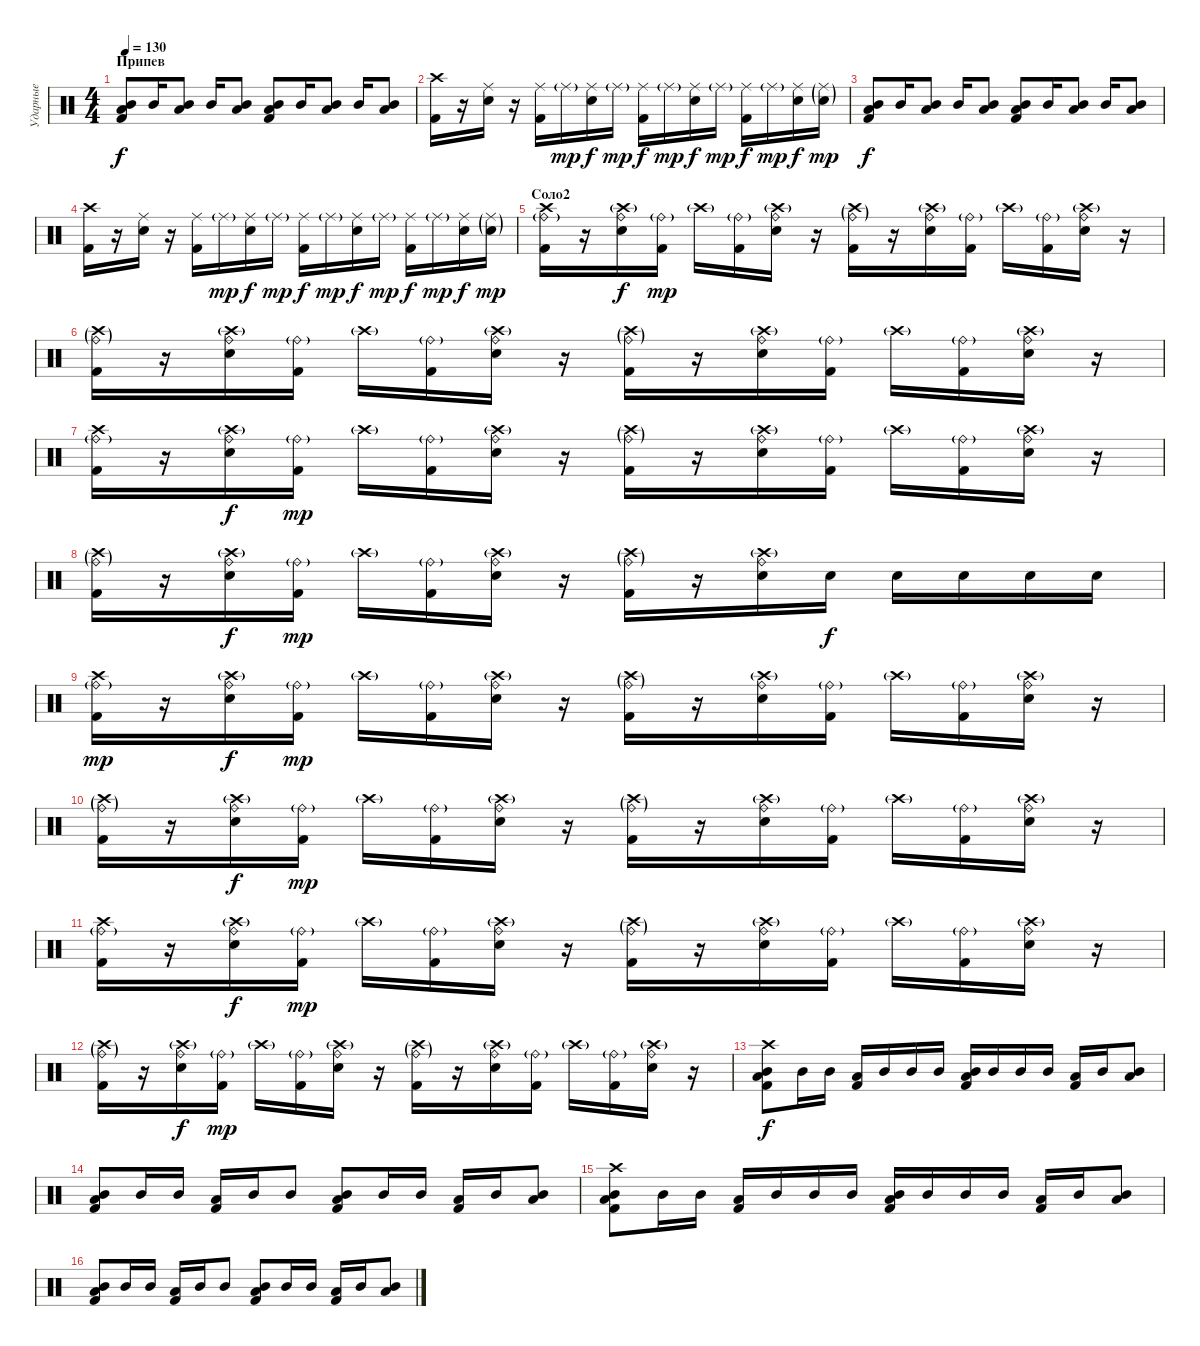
\track ("Ударные" "Ударные") {instrument percussion}
\staff {score}
\articulation defaults
\ts (4 4)
\section ("" "Припев")
\tempo 130
\clef neutral
\ks c
("Low Tom (hit)" "Mid Tom (hit)" "Kick (hit) 2").8{dy f} "Mid Tom (hit)".16 ("Low Tom (hit)" "Mid Tom (hit)").8 "Mid Tom (hit)".16 ("Low Tom (hit)" "Mid Tom (hit)").8 ("Low Tom (hit)" "Mid Tom (hit)" "Kick (hit) 2").8 "Mid Tom (hit)".16 ("Low Tom (hit)" "Mid Tom (hit)").8 "Mid Tom (hit)".16 ("Low Tom (hit)" "Mid Tom (hit)").8 |
("Crash high (hit)" "Kick (hit) 2").16 r.16 ("Ride (middle)" "Snare (hit) 2").16 r.16 ("Ride (middle)" "Kick (hit) 2").16 "Ride (middle)"{g}.16{dy mp} ("Ride (middle)" "Snare (hit) 2").16{dy f} "Ride (middle)"{g}.16{dy mp} ("Ride (middle)" "Kick (hit) 2").16{dy f} "Ride (middle)"{g}.16{dy mp} ("Ride (middle)" "Snare (hit) 2").16{dy f} "Ride (middle)"{g}.16{dy mp} ("Ride (middle)" "Kick (hit) 2").16{dy f} "Ride (middle)"{g}.16{dy mp} ("Ride (middle)" "Snare (hit) 2").16{dy f} ("Ride (middle)"{g} "Snare (hit) 2"{g}).16{dy mp} |
("Low Tom (hit)" "Mid Tom (hit)" "Kick (hit) 2").8{dy f} "Mid Tom (hit)".16 ("Low Tom (hit)" "Mid Tom (hit)").8 "Mid Tom (hit)".16 ("Low Tom (hit)" "Mid Tom (hit)").8 ("Low Tom (hit)" "Mid Tom (hit)" "Kick (hit) 2").8 "Mid Tom (hit)".16 ("Low Tom (hit)" "Mid Tom (hit)").8 "Mid Tom (hit)".16 ("Low Tom (hit)" "Mid Tom (hit)").8 |
("Crash high (hit)" "Kick (hit) 2").16 r.16 ("Ride (middle)" "Snare (hit) 2").16 r.16 ("Ride (middle)" "Kick (hit) 2").16 "Ride (middle)"{g}.16{dy mp} ("Ride (middle)" "Snare (hit) 2").16{dy f} "Ride (middle)"{g}.16{dy mp} ("Ride (middle)" "Kick (hit) 2").16{dy f} "Ride (middle)"{g}.16{dy mp} ("Ride (middle)" "Snare (hit) 2").16{dy f} "Ride (middle)"{g}.16{dy mp} ("Ride (middle)" "Kick (hit) 2").16{dy f} "Ride (middle)"{g}.16{dy mp} ("Ride (middle)" "Snare (hit) 2").16{dy f} ("Ride (middle)"{g} "Snare (hit) 2"{g}).16{dy mp} |
\section ("" "Соло2")
("Crash high (hit)" "Ride (bell)"{g} "Kick (hit) 2").16 r.16 ("Crash high (hit)"{g} "Snare (hit) 2" "Ride (bell)").16{dy f} ("Ride (bell)"{g} "Kick (hit) 2").16{dy mp} "Crash high (hit)"{g}.16 ("Ride (bell)"{g} "Kick (hit) 2").16 ("Crash high (hit)"{g} "Snare (hit) 2" "Ride (bell)").16 r.16 ("Crash high (hit)"{g} "Ride (bell)"{g} "Kick (hit) 2").16 r.16 ("Crash high (hit)"{g} "Snare (hit) 2" "Ride (bell)").16 ("Ride (bell)"{g} "Kick (hit) 2").16 "Crash high (hit)"{g}.16 ("Ride (bell)"{g} "Kick (hit) 2").16 ("Crash high (hit)"{g} "Snare (hit) 2" "Ride (bell)").16 r.16 |
("Crash high (hit)"{g} "Ride (bell)"{g} "Kick (hit) 2").16 r.16 ("Crash high (hit)"{g} "Snare (hit) 2" "Ride (bell)").16 ("Ride (bell)"{g} "Kick (hit) 2").16 "Crash high (hit)"{g}.16 ("Ride (bell)"{g} "Kick (hit) 2").16 ("Crash high (hit)"{g} "Snare (hit) 2" "Ride (bell)").16 r.16 ("Crash high (hit)"{g} "Ride (bell)"{g} "Kick (hit) 2").16 r.16 ("Crash high (hit)"{g} "Snare (hit) 2" "Ride (bell)").16 ("Ride (bell)"{g} "Kick (hit) 2").16 "Crash high (hit)"{g}.16 ("Ride (bell)"{g} "Kick (hit) 2").16 ("Crash high (hit)"{g} "Snare (hit) 2" "Ride (bell)").16 r.16 |
("Crash high (hit)" "Ride (bell)"{g} "Kick (hit) 2").16 r.16 ("Crash high (hit)"{g} "Snare (hit) 2" "Ride (bell)").16{dy f} ("Ride (bell)"{g} "Kick (hit) 2").16{dy mp} "Crash high (hit)"{g}.16 ("Ride (bell)"{g} "Kick (hit) 2").16 ("Crash high (hit)"{g} "Snare (hit) 2" "Ride (bell)").16 r.16 ("Crash high (hit)"{g} "Ride (bell)"{g} "Kick (hit) 2").16 r.16 ("Crash high (hit)"{g} "Snare (hit) 2" "Ride (bell)").16 ("Ride (bell)"{g} "Kick (hit) 2").16 "Crash high (hit)"{g}.16 ("Ride (bell)"{g} "Kick (hit) 2").16 ("Crash high (hit)"{g} "Snare (hit) 2" "Ride (bell)").16 r.16 |
("Crash high (hit)"{g} "Ride (bell)"{g} "Kick (hit) 2").16 r.16 ("Crash high (hit)"{g} "Snare (hit) 2" "Ride (bell)").16{dy f} ("Ride (bell)"{g} "Kick (hit) 2").16{dy mp} "Crash high (hit)"{g}.16 ("Ride (bell)"{g} "Kick (hit) 2").16 ("Crash high (hit)"{g} "Snare (hit) 2" "Ride (bell)").16 r.16 ("Crash high (hit)"{g} "Ride (bell)"{g} "Kick (hit) 2").16 r.16 ("Crash high (hit)"{g} "Snare (hit) 2" "Ride (bell)").16 "Snare (hit) 2".16{dy f} "Snare (hit) 2".16 "Snare (hit) 2".16 "Snare (hit) 2".16 "Snare (hit) 2".16 |
("Crash high (hit)" "Ride (bell)"{g} "Kick (hit) 2").16{dy mp} r.16 ("Crash high (hit)"{g} "Snare (hit) 2" "Ride (bell)").16{dy f} ("Ride (bell)"{g} "Kick (hit) 2").16{dy mp} "Crash high (hit)"{g}.16 ("Ride (bell)"{g} "Kick (hit) 2").16 ("Crash high (hit)"{g} "Snare (hit) 2" "Ride (bell)").16 r.16 ("Crash high (hit)"{g} "Ride (bell)"{g} "Kick (hit) 2").16 r.16 ("Crash high (hit)"{g} "Snare (hit) 2" "Ride (bell)").16 ("Ride (bell)"{g} "Kick (hit) 2").16 "Crash high (hit)"{g}.16 ("Ride (bell)"{g} "Kick (hit) 2").16 ("Crash high (hit)"{g} "Snare (hit) 2" "Ride (bell)").16 r.16 |
("Crash high (hit)"{g} "Ride (bell)"{g} "Kick (hit) 2").16 r.16 ("Crash high (hit)"{g} "Snare (hit) 2" "Ride (bell)").16{dy f} ("Ride (bell)"{g} "Kick (hit) 2").16{dy mp} "Crash high (hit)"{g}.16 ("Ride (bell)"{g} "Kick (hit) 2").16 ("Crash high (hit)"{g} "Snare (hit) 2" "Ride (bell)").16 r.16 ("Crash high (hit)"{g} "Ride (bell)"{g} "Kick (hit) 2").16 r.16 ("Crash high (hit)"{g} "Snare (hit) 2" "Ride (bell)").16 ("Ride (bell)"{g} "Kick (hit) 2").16 "Crash high (hit)"{g}.16 ("Ride (bell)"{g} "Kick (hit) 2").16 ("Crash high (hit)"{g} "Snare (hit) 2" "Ride (bell)").16 r.16 |
("Crash high (hit)" "Ride (bell)"{g} "Kick (hit) 2").16 r.16 ("Crash high (hit)"{g} "Snare (hit) 2" "Ride (bell)").16{dy f} ("Ride (bell)"{g} "Kick (hit) 2").16{dy mp} "Crash high (hit)"{g}.16 ("Ride (bell)"{g} "Kick (hit) 2").16 ("Crash high (hit)"{g} "Snare (hit) 2" "Ride (bell)").16 r.16 ("Crash high (hit)"{g} "Ride (bell)"{g} "Kick (hit) 2").16 r.16 ("Crash high (hit)"{g} "Snare (hit) 2" "Ride (bell)").16 ("Ride (bell)"{g} "Kick (hit) 2").16 "Crash high (hit)"{g}.16 ("Ride (bell)"{g} "Kick (hit) 2").16 ("Crash high (hit)"{g} "Snare (hit) 2" "Ride (bell)").16 r.16 |
("Crash high (hit)"{g} "Ride (bell)"{g} "Kick (hit) 2").16 r.16 ("Crash high (hit)"{g} "Snare (hit) 2" "Ride (bell)").16{dy f} ("Ride (bell)"{g} "Kick (hit) 2").16{dy mp} "Crash high (hit)"{g}.16 ("Ride (bell)"{g} "Kick (hit) 2").16 ("Crash high (hit)"{g} "Snare (hit) 2" "Ride (bell)").16 r.16 ("Crash high (hit)"{g} "Ride (bell)"{g} "Kick (hit) 2").16 r.16 ("Crash high (hit)"{g} "Snare (hit) 2" "Ride (bell)").16 ("Ride (bell)"{g} "Kick (hit) 2").16 "Crash high (hit)"{g}.16 ("Ride (bell)"{g} "Kick (hit) 2").16 ("Crash high (hit)"{g} "Snare (hit) 2" "Ride (bell)").16 r.16 |
("Low Tom (hit)" "Mid Tom (hit)" "Crash high (hit)" "Kick (hit) 2").8{dy f volume 13} "Mid Tom (hit)".16 "Mid Tom (hit)".16 ("Low Tom (hit)" "Kick (hit) 2").16 "Mid Tom (hit)".16 "Mid Tom (hit)".16 "Mid Tom (hit)".16 ("Low Tom (hit)" "Mid Tom (hit)" "Kick (hit) 2").16 "Mid Tom (hit)".16 "Mid Tom (hit)".16 "Mid Tom (hit)".16 ("Low Tom (hit)" "Kick (hit) 2").16 "Mid Tom (hit)".16 ("Low Tom (hit)" "Mid Tom (hit)").8 |
("Low Tom (hit)" "Mid Tom (hit)" "Kick (hit) 2").8 "Mid Tom (hit)".16 "Mid Tom (hit)".16 ("Low Tom (hit)" "Kick (hit) 2").16 "Mid Tom (hit)".16 "Mid Tom (hit)".8 ("Low Tom (hit)" "Mid Tom (hit)" "Kick (hit) 2").8 "Mid Tom (hit)".16 "Mid Tom (hit)".16 ("Low Tom (hit)" "Kick (hit) 2").16 "Mid Tom (hit)".16 ("Low Tom (hit)" "Mid Tom (hit)").8 |
("Low Tom (hit)" "Mid Tom (hit)" "Crash high (hit)" "Kick (hit) 2").8{volume 13} "Mid Tom (hit)".16 "Mid Tom (hit)".16 ("Low Tom (hit)" "Kick (hit) 2").16 "Mid Tom (hit)".16 "Mid Tom (hit)".16 "Mid Tom (hit)".16 ("Low Tom (hit)" "Mid Tom (hit)" "Kick (hit) 2").16 "Mid Tom (hit)".16 "Mid Tom (hit)".16 "Mid Tom (hit)".16 ("Low Tom (hit)" "Kick (hit) 2").16 "Mid Tom (hit)".16 ("Low Tom (hit)" "Mid Tom (hit)").8 |
("Low Tom (hit)" "Mid Tom (hit)" "Kick (hit) 2").8 "Mid Tom (hit)".16 "Mid Tom (hit)".16 ("Low Tom (hit)" "Kick (hit) 2").16 "Mid Tom (hit)".16 "Mid Tom (hit)".8 ("Low Tom (hit)" "Mid Tom (hit)" "Kick (hit) 2").8 "Mid Tom (hit)".16 "Mid Tom (hit)".16 ("Low Tom (hit)" "Kick (hit) 2").16 "Mid Tom (hit)".16 ("Low Tom (hit)" "Mid Tom (hit)").8
